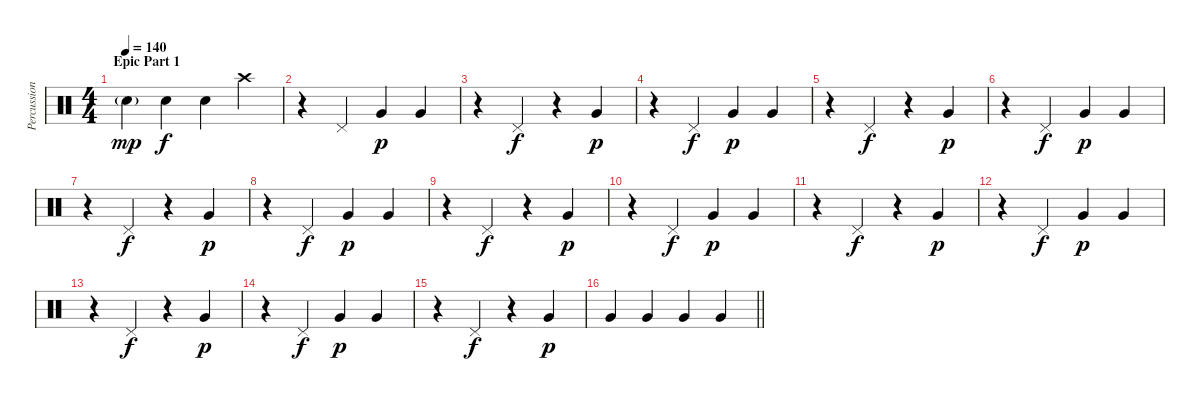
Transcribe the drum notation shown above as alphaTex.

\track ("Percussions" "Percussion") {instrument percussion}
\staff {score}
\articulation defaults
\ts (4 4)
\section ("" "Epic Part 1")
\tempo 140
\clef neutral
\ks c "Electric Snare (hit)"{g}.4{dy mp} "Electric Snare (hit)".4{dy f} "Electric Snare (hit)".4 "Crash high (hit)".4
|
r.4 "Pedal Hi-Hat (hit)".4 "Very Low Tom (hit)".4{dy p} "Very Low Tom (hit)".4 |
r.4 "Pedal Hi-Hat (hit)".4{dy f} r.4 "Very Low Tom (hit)".4{dy p} |
r.4 "Pedal Hi-Hat (hit)".4{dy f} "Very Low Tom (hit)".4{dy p} "Very Low Tom (hit)".4 |
r.4 "Pedal Hi-Hat (hit)".4{dy f} r.4 "Very Low Tom (hit)".4{dy p} |
r.4 "Pedal Hi-Hat (hit)".4{dy f} "Very Low Tom (hit)".4{dy p} "Very Low Tom (hit)".4 |
r.4 "Pedal Hi-Hat (hit)".4{dy f} r.4 "Very Low Tom (hit)".4{dy p} |
r.4 "Pedal Hi-Hat (hit)".4{dy f} "Very Low Tom (hit)".4{dy p} "Very Low Tom (hit)".4 |
r.4 "Pedal Hi-Hat (hit)".4{dy f} r.4 "Very Low Tom (hit)".4{dy p} |
r.4 "Pedal Hi-Hat (hit)".4{dy f} "Very Low Tom (hit)".4{dy p} "Very Low Tom (hit)".4 |
r.4 "Pedal Hi-Hat (hit)".4{dy f} r.4 "Very Low Tom (hit)".4{dy p} |
r.4 "Pedal Hi-Hat (hit)".4{dy f} "Very Low Tom (hit)".4{dy p} "Very Low Tom (hit)".4 |
r.4 "Pedal Hi-Hat (hit)".4{dy f} r.4 "Very Low Tom (hit)".4{dy p} |
r.4 "Pedal Hi-Hat (hit)".4{dy f} "Very Low Tom (hit)".4{dy p} "Very Low Tom (hit)".4 |
r.4 "Pedal Hi-Hat (hit)".4{dy f} r.4 "Very Low Tom (hit)".4{dy p} |
\barLineRight lightlight "Very Low Tom (hit)".4 "Very Low Tom (hit)".4 "Very Low Tom (hit)".4 "Very Low Tom (hit)".4
